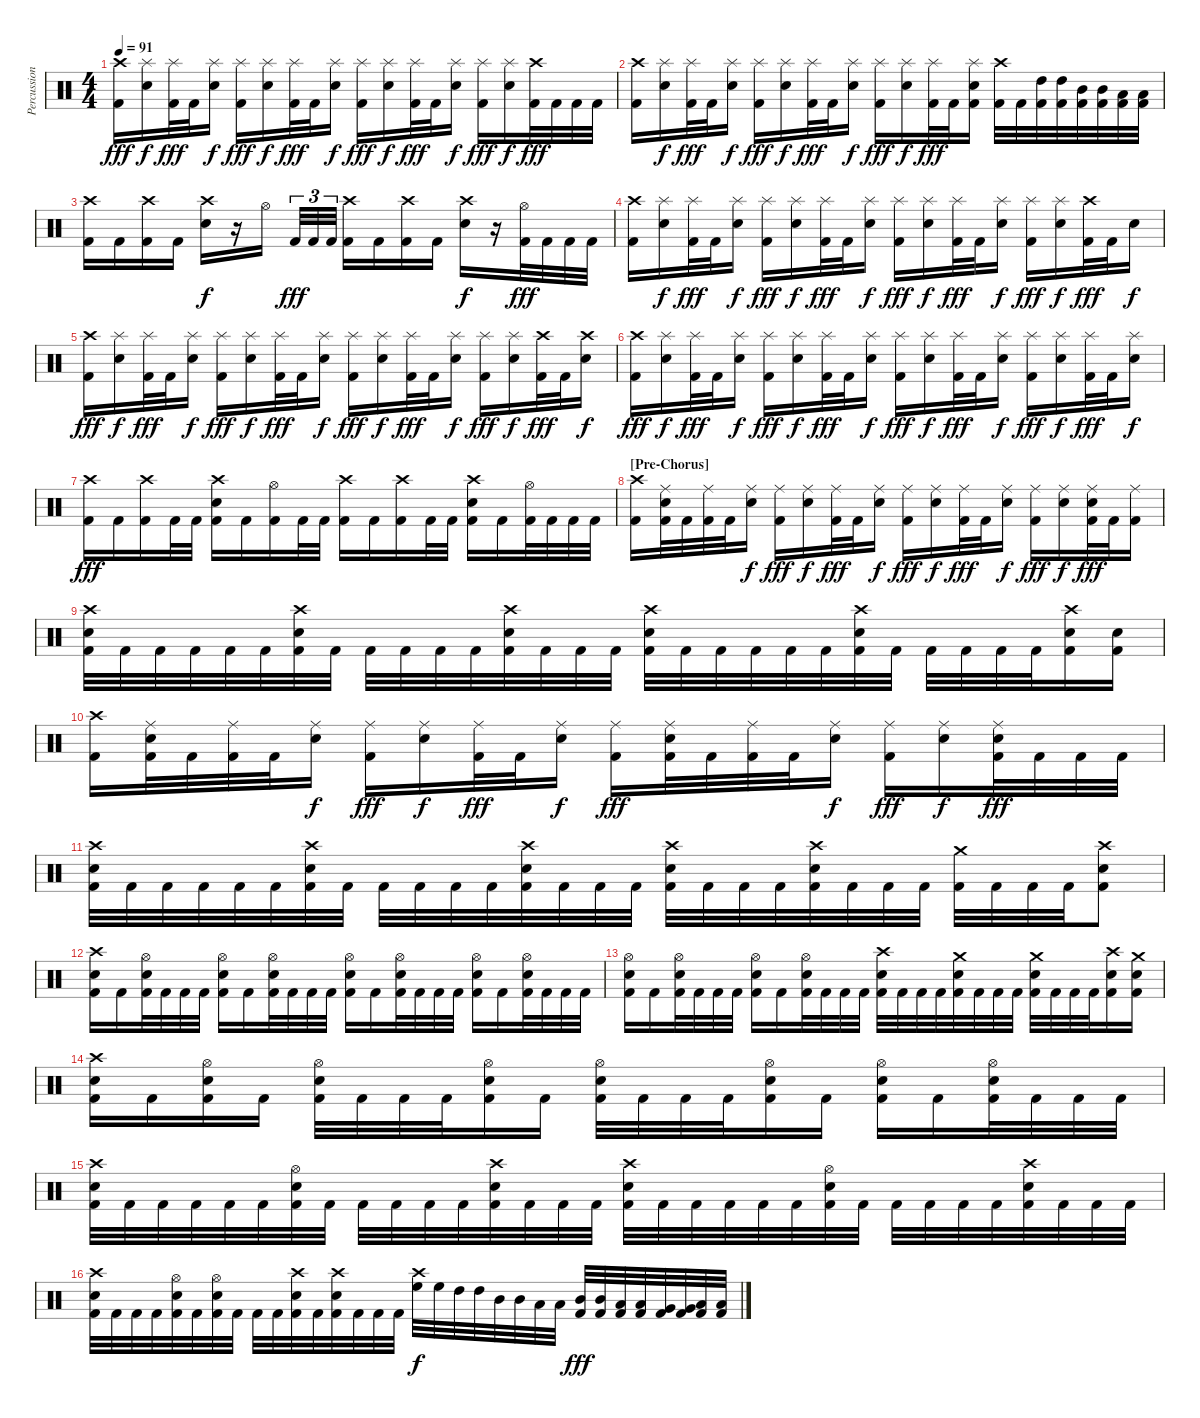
\track ("Percussion" "Percussion") {instrument percussion}
\staff {score}
\articulation defaults
\ts (4 4)
\tempo 91
\clef neutral
\ks c
("Crash high (hit)" "Kick (hit) 2").16{dy fff} ("Splash (hit)" "Snare (hit) 2").16{dy f} ("Splash (hit)" "Kick (hit) 2").32{dy fff} "Kick (hit) 2".32 ("Splash (hit)" "Snare (hit) 2").16{dy f} ("Splash (hit)" "Kick (hit) 2").16{dy fff} ("Splash (hit)" "Snare (hit) 2").16{dy f} ("Splash (hit)" "Kick (hit) 2").32{dy fff} "Kick (hit) 2".32 ("Splash (hit)" "Snare (hit) 2").16{dy f} ("Splash (hit)" "Kick (hit) 2").16{dy fff} ("Splash (hit)" "Snare (hit) 2").16{dy f} ("Splash (hit)" "Kick (hit) 2").32{dy fff} "Kick (hit) 2".32 ("Splash (hit)" "Snare (hit) 2").16{dy f} ("Splash (hit)" "Kick (hit) 2").16{dy fff} ("Splash (hit)" "Snare (hit) 2").16{dy f} ("Crash high (hit)" "Kick (hit) 2").32{dy fff} "Kick (hit) 2".32 "Kick (hit) 2".32 "Kick (hit) 2".32 |
("Crash high (hit)" "Kick (hit) 2").16 ("Splash (hit)" "Snare (hit) 2").16{dy f} ("Splash (hit)" "Kick (hit) 2").32{dy fff} "Kick (hit) 2".32 ("Splash (hit)" "Snare (hit) 2").16{dy f} ("Splash (hit)" "Kick (hit) 2").16{dy fff} ("Splash (hit)" "Snare (hit) 2").16{dy f} ("Splash (hit)" "Kick (hit) 2").32{dy fff} "Kick (hit) 2".32 ("Splash (hit)" "Snare (hit) 2").16{dy f} ("Splash (hit)" "Kick (hit) 2").16{dy fff} ("Splash (hit)" "Snare (hit) 2").16{dy f} ("Splash (hit)" "Kick (hit) 2").32{dy fff} "Kick (hit) 2".32 ("Splash (hit)" "Snare (hit) 2" "Kick (hit) 2").16 ("Crash high (hit)" "Kick (hit) 2").32 "Kick (hit) 2".32 ("High Tom (hit)" "Kick (hit) 2").32 ("High Tom (hit)" "Kick (hit) 2").32 ("Mid Tom (hit)" "Kick (hit) 2").32 ("Mid Tom (hit)" "Kick (hit) 2").32 ("Low Tom (hit)" "Kick (hit) 2").32 ("Low Tom (hit)" "Kick (hit) 2").32 |
("Crash high (hit)" "Kick (hit) 2").16 "Kick (hit) 2".16 ("Crash high (hit)" "Kick (hit) 2").16 "Kick (hit) 2".16 ("Crash high (hit)" "Snare (hit) 2").16{dy f} r.16 "Hi-Hat (open)".16 "Kick (hit) 2".32{tu (3 2) dy fff} "Kick (hit) 2".32{tu (3 2)} "Kick (hit) 2".32{tu (3 2)} ("Crash high (hit)" "Kick (hit) 2").16 "Kick (hit) 2".16 ("Crash high (hit)" "Kick (hit) 2").16 "Kick (hit) 2".16 ("Crash high (hit)" "Snare (hit) 2").16{dy f} r.16 ("Hi-Hat (open)" "Kick (hit) 2").32{dy fff} "Kick (hit) 2".32 "Kick (hit) 2".32 "Kick (hit) 2".32 |
("Crash high (hit)" "Kick (hit) 2").16 ("Splash (hit)" "Snare (hit) 2").16{dy f} ("Splash (hit)" "Kick (hit) 2").32{dy fff} "Kick (hit) 2".32 ("Splash (hit)" "Snare (hit) 2").16{dy f} ("Splash (hit)" "Kick (hit) 2").16{dy fff} ("Splash (hit)" "Snare (hit) 2").16{dy f} ("Splash (hit)" "Kick (hit) 2").32{dy fff} "Kick (hit) 2".32 ("Splash (hit)" "Snare (hit) 2").16{dy f} ("Splash (hit)" "Kick (hit) 2").16{dy fff} ("Splash (hit)" "Snare (hit) 2").16{dy f} ("Splash (hit)" "Kick (hit) 2").32{dy fff} "Kick (hit) 2".32 ("Splash (hit)" "Snare (hit) 2").16{dy f} ("Splash (hit)" "Kick (hit) 2").16{dy fff} ("Splash (hit)" "Snare (hit) 2").16{dy f} ("Crash high (hit)" "Kick (hit) 2").32{dy fff} "Kick (hit) 2".32 "Snare (hit) 2".16{dy f} |
("Crash high (hit)" "Kick (hit) 2").16{dy fff} ("Splash (hit)" "Snare (hit) 2").16{dy f} ("Splash (hit)" "Kick (hit) 2").32{dy fff} "Kick (hit) 2".32 ("Splash (hit)" "Snare (hit) 2").16{dy f} ("Splash (hit)" "Kick (hit) 2").16{dy fff} ("Splash (hit)" "Snare (hit) 2").16{dy f} ("Splash (hit)" "Kick (hit) 2").32{dy fff} "Kick (hit) 2".32 ("Splash (hit)" "Snare (hit) 2").16{dy f} ("Splash (hit)" "Kick (hit) 2").16{dy fff} ("Splash (hit)" "Snare (hit) 2").16{dy f} ("Splash (hit)" "Kick (hit) 2").32{dy fff} "Kick (hit) 2".32 ("Splash (hit)" "Snare (hit) 2").16{dy f} ("Splash (hit)" "Kick (hit) 2").16{dy fff} ("Splash (hit)" "Snare (hit) 2").16{dy f} ("Crash high (hit)" "Kick (hit) 2").32{dy fff} "Kick (hit) 2".32 ("Crash high (hit)" "Snare (hit) 2").16{dy f} |
("Crash high (hit)" "Kick (hit) 2").16{dy fff} ("Splash (hit)" "Snare (hit) 2").16{dy f} ("Splash (hit)" "Kick (hit) 2").32{dy fff} "Kick (hit) 2".32 ("Splash (hit)" "Snare (hit) 2").16{dy f} ("Splash (hit)" "Kick (hit) 2").16{dy fff} ("Splash (hit)" "Snare (hit) 2").16{dy f} ("Splash (hit)" "Kick (hit) 2").32{dy fff} "Kick (hit) 2".32 ("Splash (hit)" "Snare (hit) 2").16{dy f} ("Splash (hit)" "Kick (hit) 2").16{dy fff} ("Splash (hit)" "Snare (hit) 2").16{dy f} ("Splash (hit)" "Kick (hit) 2").32{dy fff} "Kick (hit) 2".32 ("Splash (hit)" "Snare (hit) 2").16{dy f} ("Splash (hit)" "Kick (hit) 2").16{dy fff} ("Splash (hit)" "Snare (hit) 2").16{dy f} ("Splash (hit)" "Kick (hit) 2").32{dy fff} "Kick (hit) 2".32 ("Splash (hit)" "Snare (hit) 2").16{dy f} |
("Crash high (hit)" "Kick (hit) 2").16{dy fff} "Kick (hit) 2".16 ("Crash high (hit)" "Kick (hit) 2").16 "Kick (hit) 2".32 "Kick (hit) 2".32 ("Crash high (hit)" "Snare (hit) 2" "Kick (hit) 2").16 "Kick (hit) 2".16 ("Hi-Hat (open)" "Kick (hit) 2").16 "Kick (hit) 2".32 "Kick (hit) 2".32 ("Crash high (hit)" "Kick (hit) 2").16 "Kick (hit) 2".16 ("Crash high (hit)" "Kick (hit) 2").16 "Kick (hit) 2".32 "Kick (hit) 2".32 ("Crash high (hit)" "Snare (hit) 2" "Kick (hit) 2").16 "Kick (hit) 2".16 ("Hi-Hat (open)" "Kick (hit) 2").32 "Kick (hit) 2".32 "Kick (hit) 2".32 "Kick (hit) 2".32 |
\section ("" "[Pre-Chorus]")
("Crash high (hit)" "Kick (hit) 2").16 ("Ride (middle)" "Snare (hit) 2" "Kick (hit) 2").32 "Kick (hit) 2".32 ("Ride (middle)" "Kick (hit) 2").32 "Kick (hit) 2".32 ("Ride (middle)" "Snare (hit) 2").16{dy f} ("Ride (middle)" "Kick (hit) 2").16{dy fff} ("Ride (middle)" "Snare (hit) 2").16{dy f} ("Ride (middle)" "Kick (hit) 2").32{dy fff} "Kick (hit) 2".32 ("Ride (middle)" "Snare (hit) 2").16{dy f} ("Ride (middle)" "Kick (hit) 2").16{dy fff} ("Ride (middle)" "Snare (hit) 2").16{dy f} ("Ride (middle)" "Kick (hit) 2").32{dy fff} "Kick (hit) 2".32 ("Ride (middle)" "Snare (hit) 2").16{dy f} ("Ride (middle)" "Kick (hit) 2").16{dy fff} ("Ride (middle)" "Snare (hit) 2").16{dy f} ("Ride (middle)" "Snare (hit) 2" "Kick (hit) 2").32{dy fff} "Kick (hit) 2".32 ("Ride (middle)" "Kick (hit) 2").16 |
("Crash high (hit)" "Snare (hit) 2" "Kick (hit) 2").32 "Kick (hit) 2".32 "Kick (hit) 2".32 "Kick (hit) 2".32 "Kick (hit) 2".32 "Kick (hit) 2".32 ("Crash high (hit)" "Snare (hit) 2" "Kick (hit) 2").32 "Kick (hit) 2".32 "Kick (hit) 2".32 "Kick (hit) 2".32 "Kick (hit) 2".32 "Kick (hit) 2".32 ("Crash high (hit)" "Snare (hit) 2" "Kick (hit) 2").32 "Kick (hit) 2".32 "Kick (hit) 2".32 "Kick (hit) 2".32 ("Crash high (hit)" "Snare (hit) 2" "Kick (hit) 2").32 "Kick (hit) 2".32 "Kick (hit) 2".32 "Kick (hit) 2".32 "Kick (hit) 2".32 "Kick (hit) 2".32 ("Crash high (hit)" "Snare (hit) 2" "Kick (hit) 2").32 "Kick (hit) 2".32 "Kick (hit) 2".32 "Kick (hit) 2".32 "Kick (hit) 2".32 "Kick (hit) 2".32 ("Crash high (hit)" "Snare (hit) 2" "Kick (hit) 2").16 ("Snare (hit) 2" "Kick (hit) 2").16 |
("Crash high (hit)" "Kick (hit) 2").16 ("Ride (middle)" "Snare (hit) 2" "Kick (hit) 2").32 "Kick (hit) 2".32 ("Ride (middle)" "Kick (hit) 2").32 "Kick (hit) 2".32 ("Ride (middle)" "Snare (hit) 2").16{dy f} ("Ride (middle)" "Kick (hit) 2").16{dy fff} ("Ride (middle)" "Snare (hit) 2").16{dy f} ("Ride (middle)" "Kick (hit) 2").32{dy fff} "Kick (hit) 2".32 ("Ride (middle)" "Snare (hit) 2").16{dy f} ("Ride (middle)" "Kick (hit) 2").16{dy fff} ("Ride (middle)" "Snare (hit) 2" "Kick (hit) 2").32 "Kick (hit) 2".32 ("Ride (middle)" "Kick (hit) 2").32 "Kick (hit) 2".32 ("Ride (middle)" "Snare (hit) 2").16{dy f} ("Ride (middle)" "Kick (hit) 2").16{dy fff} ("Ride (middle)" "Snare (hit) 2").16{dy f} ("Ride (middle)" "Snare (hit) 2" "Kick (hit) 2").32{dy fff} "Kick (hit) 2".32 "Kick (hit) 2".32 "Kick (hit) 2".32 |
("Crash high (hit)" "Snare (hit) 2" "Kick (hit) 2").32 "Kick (hit) 2".32 "Kick (hit) 2".32 "Kick (hit) 2".32 "Kick (hit) 2".32 "Kick (hit) 2".32 ("Crash high (hit)" "Snare (hit) 2" "Kick (hit) 2").32 "Kick (hit) 2".32 "Kick (hit) 2".32 "Kick (hit) 2".32 "Kick (hit) 2".32 "Kick (hit) 2".32 ("Crash high (hit)" "Snare (hit) 2" "Kick (hit) 2").32 "Kick (hit) 2".32 "Kick (hit) 2".32 "Kick (hit) 2".32 ("Crash high (hit)" "Snare (hit) 2" "Kick (hit) 2").32 "Kick (hit) 2".32 "Kick (hit) 2".32 "Kick (hit) 2".32 ("Crash high (hit)" "Snare (hit) 2" "Kick (hit) 2").32 "Kick (hit) 2".32 "Kick (hit) 2".32 "Kick (hit) 2".32 ("Crash medium (hit)" "Kick (hit) 2").32 "Kick (hit) 2".32 "Kick (hit) 2".32 "Kick (hit) 2".32 ("Crash high (hit)" "Snare (hit) 2" "Kick (hit) 2").8 |
("Crash high (hit)" "Snare (hit) 2" "Kick (hit) 2").16 "Kick (hit) 2".16 ("Hi-Hat (open)" "Snare (hit) 2" "Kick (hit) 2").32 "Kick (hit) 2".32 "Kick (hit) 2".32 "Kick (hit) 2".32 ("Hi-Hat (open)" "Snare (hit) 2" "Kick (hit) 2").16 "Kick (hit) 2".16 ("Hi-Hat (open)" "Snare (hit) 2" "Kick (hit) 2").32 "Kick (hit) 2".32 "Kick (hit) 2".32 "Kick (hit) 2".32 ("Hi-Hat (open)" "Snare (hit) 2" "Kick (hit) 2").16 "Kick (hit) 2".16 ("Hi-Hat (open)" "Snare (hit) 2" "Kick (hit) 2").32 "Kick (hit) 2".32 "Kick (hit) 2".32 "Kick (hit) 2".32 ("Hi-Hat (open)" "Snare (hit) 2" "Kick (hit) 2").16 "Kick (hit) 2".16 ("Hi-Hat (open)" "Snare (hit) 2" "Kick (hit) 2").32 "Kick (hit) 2".32 "Kick (hit) 2".32 "Kick (hit) 2".32 |
("Hi-Hat (open)" "Snare (hit) 2" "Kick (hit) 2").16 "Kick (hit) 2".16 ("Hi-Hat (open)" "Snare (hit) 2" "Kick (hit) 2").32 "Kick (hit) 2".32 "Kick (hit) 2".32 "Kick (hit) 2".32 ("Hi-Hat (open)" "Snare (hit) 2" "Kick (hit) 2").16 "Kick (hit) 2".16 ("Hi-Hat (open)" "Snare (hit) 2" "Kick (hit) 2").32 "Kick (hit) 2".32 "Kick (hit) 2".32 "Kick (hit) 2".32 ("Crash high (hit)" "Snare (hit) 2" "Kick (hit) 2").32 "Kick (hit) 2".32 "Kick (hit) 2".32 "Kick (hit) 2".32 ("Crash medium (hit)" "Snare (hit) 2" "Kick (hit) 2").32 "Kick (hit) 2".32 "Kick (hit) 2".32 "Kick (hit) 2".32 ("Crash medium (hit)" "Snare (hit) 2" "Kick (hit) 2").32 "Kick (hit) 2".32 "Kick (hit) 2".32 "Kick (hit) 2".32 ("Crash high (hit)" "Snare (hit) 2" "Kick (hit) 2").16 ("Crash medium (hit)" "Snare (hit) 2" "Kick (hit) 2").16 |
("Crash high (hit)" "Snare (hit) 2" "Kick (hit) 2").16 "Kick (hit) 2".16 ("Hi-Hat (open)" "Snare (hit) 2" "Kick (hit) 2").16 "Kick (hit) 2".16 ("Hi-Hat (open)" "Snare (hit) 2" "Kick (hit) 2").32 "Kick (hit) 2".32 "Kick (hit) 2".32 "Kick (hit) 2".32 ("Hi-Hat (open)" "Snare (hit) 2" "Kick (hit) 2").16 "Kick (hit) 2".16 ("Hi-Hat (open)" "Snare (hit) 2" "Kick (hit) 2").32 "Kick (hit) 2".32 "Kick (hit) 2".32 "Kick (hit) 2".32 ("Hi-Hat (open)" "Snare (hit) 2" "Kick (hit) 2").16 "Kick (hit) 2".16 ("Hi-Hat (open)" "Snare (hit) 2" "Kick (hit) 2").16 "Kick (hit) 2".16 ("Hi-Hat (open)" "Snare (hit) 2" "Kick (hit) 2").32 "Kick (hit) 2".32 "Kick (hit) 2".32 "Kick (hit) 2".32 |
("Crash high (hit)" "Snare (hit) 2" "Kick (hit) 2").32 "Kick (hit) 2".32 "Kick (hit) 2".32 "Kick (hit) 2".32 "Kick (hit) 2".32 "Kick (hit) 2".32 ("Hi-Hat (open)" "Snare (hit) 2" "Kick (hit) 2").32 "Kick (hit) 2".32 "Kick (hit) 2".32 "Kick (hit) 2".32 "Kick (hit) 2".32 "Kick (hit) 2".32 ("Crash high (hit)" "Snare (hit) 2" "Kick (hit) 2").32 "Kick (hit) 2".32 "Kick (hit) 2".32 "Kick (hit) 2".32 ("Crash high (hit)" "Snare (hit) 2" "Kick (hit) 2").32 "Kick (hit) 2".32 "Kick (hit) 2".32 "Kick (hit) 2".32 "Kick (hit) 2".32 "Kick (hit) 2".32 ("Hi-Hat (open)" "Snare (hit) 2" "Kick (hit) 2").32 "Kick (hit) 2".32 "Kick (hit) 2".32 "Kick (hit) 2".32 "Kick (hit) 2".32 "Kick (hit) 2".32 ("Crash high (hit)" "Snare (hit) 2" "Kick (hit) 2").32 "Kick (hit) 2".32 "Kick (hit) 2".32 "Kick (hit) 2".32 |
("Crash high (hit)" "Snare (hit) 2" "Kick (hit) 2").32 "Kick (hit) 2".32 "Kick (hit) 2".32 "Kick (hit) 2".32 ("Hi-Hat (open)" "Snare (hit) 2" "Kick (hit) 2").32 "Kick (hit) 2".32 ("Hi-Hat (open)" "Snare (hit) 2" "Kick (hit) 2").32 "Kick (hit) 2".32 "Kick (hit) 2".32 "Kick (hit) 2".32 ("Crash high (hit)" "Snare (hit) 2" "Kick (hit) 2").32 "Kick (hit) 2".32 ("Crash high (hit)" "Snare (hit) 2" "Kick (hit) 2").32 "Kick (hit) 2".32 "Kick (hit) 2".32 "Kick (hit) 2".32 ("Crash high (hit)" "High Floor Tom (hit)").32{dy f} "High Floor Tom (hit)".32 "High Tom (hit)".32 "High Tom (hit)".32 "Mid Tom (hit)".32 "Mid Tom (hit)".32 "Low Tom (hit)".32 "Low Tom (hit)".32 ("Mid Tom (hit)" "Kick (hit) 2").32{dy fff} ("Mid Tom (hit)" "Kick (hit) 2").32 ("Low Tom (hit)" "Kick (hit) 2").32 ("Low Tom (hit)" "Kick (hit) 2").32 ("Very Low Tom (hit)" "Kick (hit) 2").32 ("Very Low Tom (hit)" "Kick (hit) 2").32 ("Low Floor Tom (hit)" "Kick (hit) 2").32 ("Low Floor Tom (hit)" "Kick (hit) 2").32
